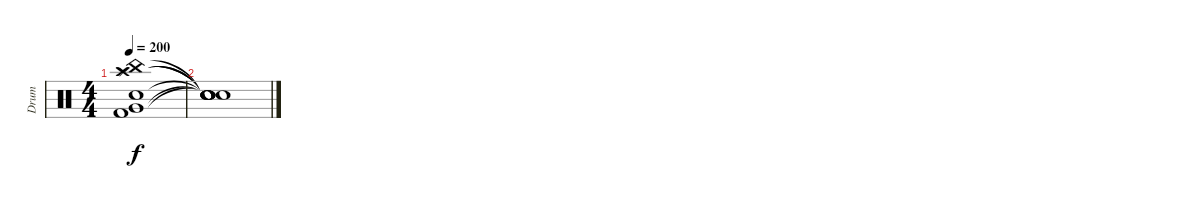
\track ("Drum" "Drum") {instrument percussion}
\staff {score}
\articulation defaults
\ts (4 4)
\tempo 200
\clef neutral
\ks c
("China (hit)" "Crash high (hit)" "Splash (hit)" "Electric Snare (hit)" "Very Low Tom (hit)" "Kick (hit) 2").1{dy f} |
("Snare (hit)"{t} "Snare (hit)"{t} "Snare (hit)"{t} "Snare (hit)"{t} "Snare (hit)"{t} "Snare (hit)"{t}).1
